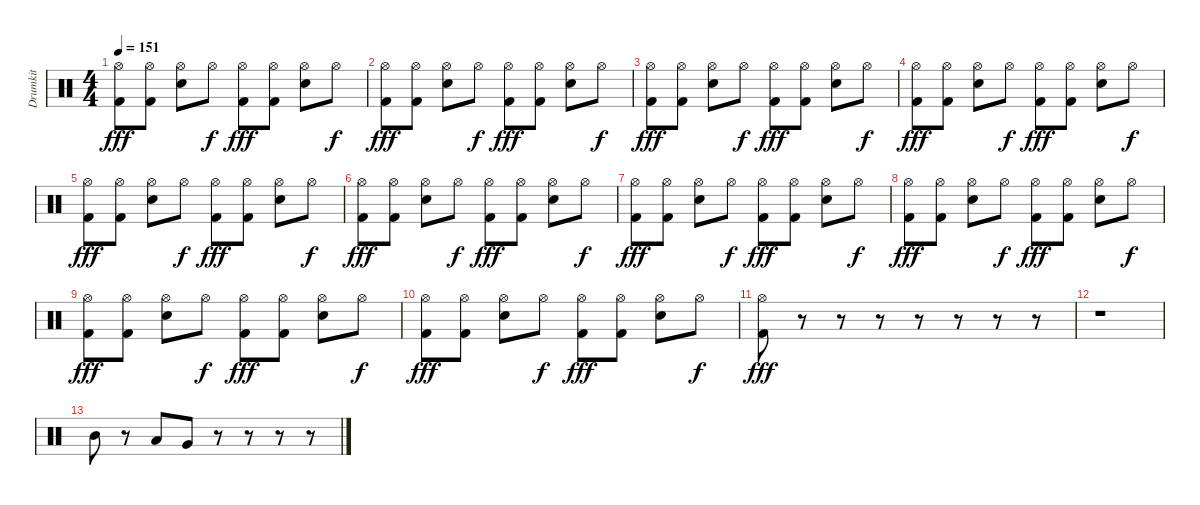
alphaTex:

\track ("Drumkit" "Drumkit") {instrument percussion}
\staff {score}
\articulation defaults
\ts (4 4)
\tempo 151
\clef neutral
\ks c
("Kick (hit) 2" "Hi-Hat (open)").8{dy fff} ("Hi-Hat (open)" "Kick (hit) 2").8 ("Electric Snare (hit)" "Hi-Hat (open)").8 "Hi-Hat (open)".8{dy f} ("Kick (hit) 2" "Hi-Hat (open)").8{dy fff} ("Kick (hit) 2" "Hi-Hat (open)").8 ("Electric Snare (hit)" "Hi-Hat (open)").8 "Hi-Hat (open)".8{dy f} |
("Kick (hit) 2" "Hi-Hat (open)").8{dy fff} ("Hi-Hat (open)" "Kick (hit) 2").8 ("Electric Snare (hit)" "Hi-Hat (open)").8 "Hi-Hat (open)".8{dy f} ("Kick (hit) 2" "Hi-Hat (open)").8{dy fff} ("Kick (hit) 2" "Hi-Hat (open)").8 ("Electric Snare (hit)" "Hi-Hat (open)").8 "Hi-Hat (open)".8{dy f} |
("Kick (hit) 2" "Hi-Hat (open)").8{dy fff} ("Hi-Hat (open)" "Kick (hit) 2").8 ("Electric Snare (hit)" "Hi-Hat (open)").8 "Hi-Hat (open)".8{dy f} ("Kick (hit) 2" "Hi-Hat (open)").8{dy fff} ("Kick (hit) 2" "Hi-Hat (open)").8 ("Electric Snare (hit)" "Hi-Hat (open)").8 "Hi-Hat (open)".8{dy f} |
("Kick (hit) 2" "Hi-Hat (open)").8{dy fff} ("Hi-Hat (open)" "Kick (hit) 2").8 ("Electric Snare (hit)" "Hi-Hat (open)").8 "Hi-Hat (open)".8{dy f} ("Kick (hit) 2" "Hi-Hat (open)").8{dy fff} ("Kick (hit) 2" "Hi-Hat (open)").8 ("Electric Snare (hit)" "Hi-Hat (open)").8 "Hi-Hat (open)".8{dy f} |
("Kick (hit) 2" "Hi-Hat (open)").8{dy fff} ("Hi-Hat (open)" "Kick (hit) 2").8 ("Electric Snare (hit)" "Hi-Hat (open)").8 "Hi-Hat (open)".8{dy f} ("Kick (hit) 2" "Hi-Hat (open)").8{dy fff} ("Kick (hit) 2" "Hi-Hat (open)").8 ("Electric Snare (hit)" "Hi-Hat (open)").8 "Hi-Hat (open)".8{dy f} |
("Kick (hit) 2" "Hi-Hat (open)").8{dy fff} ("Hi-Hat (open)" "Kick (hit) 2").8 ("Electric Snare (hit)" "Hi-Hat (open)").8 "Hi-Hat (open)".8{dy f} ("Kick (hit) 2" "Hi-Hat (open)").8{dy fff} ("Kick (hit) 2" "Hi-Hat (open)").8 ("Electric Snare (hit)" "Hi-Hat (open)").8 "Hi-Hat (open)".8{dy f} |
("Kick (hit) 2" "Hi-Hat (open)").8{dy fff} ("Hi-Hat (open)" "Kick (hit) 2").8 ("Electric Snare (hit)" "Hi-Hat (open)").8 "Hi-Hat (open)".8{dy f} ("Kick (hit) 2" "Hi-Hat (open)").8{dy fff} ("Kick (hit) 2" "Hi-Hat (open)").8 ("Electric Snare (hit)" "Hi-Hat (open)").8 "Hi-Hat (open)".8{dy f} |
("Kick (hit) 2" "Hi-Hat (open)").8{dy fff} ("Hi-Hat (open)" "Kick (hit) 2").8 ("Electric Snare (hit)" "Hi-Hat (open)").8 "Hi-Hat (open)".8{dy f} ("Kick (hit) 2" "Hi-Hat (open)").8{dy fff} ("Kick (hit) 2" "Hi-Hat (open)").8 ("Electric Snare (hit)" "Hi-Hat (open)").8 "Hi-Hat (open)".8{dy f} |
("Kick (hit) 2" "Hi-Hat (open)").8{dy fff} ("Hi-Hat (open)" "Kick (hit) 2").8 ("Electric Snare (hit)" "Hi-Hat (open)").8 "Hi-Hat (open)".8{dy f} ("Kick (hit) 2" "Hi-Hat (open)").8{dy fff} ("Kick (hit) 2" "Hi-Hat (open)").8 ("Electric Snare (hit)" "Hi-Hat (open)").8 "Hi-Hat (open)".8{dy f} |
("Kick (hit) 2" "Hi-Hat (open)").8{dy fff} ("Hi-Hat (open)" "Kick (hit) 2").8 ("Electric Snare (hit)" "Hi-Hat (open)").8 "Hi-Hat (open)".8{dy f} ("Kick (hit) 2" "Hi-Hat (open)").8{dy fff} ("Kick (hit) 2" "Hi-Hat (open)").8 ("Electric Snare (hit)" "Hi-Hat (open)").8 "Hi-Hat (open)".8{dy f} |
("Kick (hit) 2" "Hi-Hat (open)").8{dy fff} r.8 r.8 r.8 r.8 r.8 r.8 r.8 |
r.1 |
"Mid Tom (hit)".8 r.8 "Low Tom (hit)".8 "Very Low Tom (hit)".8 r.8 r.8 r.8 r.8
